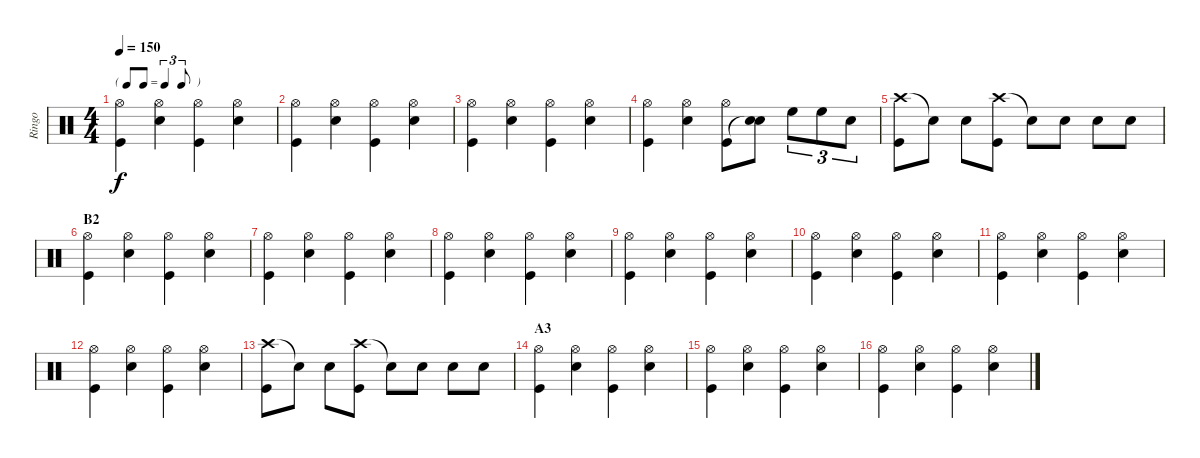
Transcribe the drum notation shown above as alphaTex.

\track ("Ringo" "Ringo") {instrument percussion}
\staff {score}
\articulation defaults
\ts (4 4)
\tf triplet8th
\tempo 150
\clef neutral
\ks c
("Hi-Hat (open)" "Kick (hit)").4{dy f} ("Hi-Hat (open)" "Snare (hit) 2").4 ("Hi-Hat (open)" "Kick (hit)").4 ("Hi-Hat (open)" "Snare (hit) 2").4 |
("Hi-Hat (open)" "Kick (hit)").4 ("Hi-Hat (open)" "Snare (hit) 2").4 ("Hi-Hat (open)" "Kick (hit)").4 ("Hi-Hat (open)" "Snare (hit) 2").4 |
("Hi-Hat (open)" "Kick (hit)").4 ("Hi-Hat (open)" "Snare (hit) 2").4 ("Hi-Hat (open)" "Kick (hit)").4 ("Hi-Hat (open)" "Snare (hit) 2").4 |
("Hi-Hat (open)" "Kick (hit)").4 ("Hi-Hat (open)" "Snare (hit) 2").4 ("Hi-Hat (open)" "Kick (hit)").8 ("Snare (hit) 2" "Snare (hit)"{t}).8 "High Floor Tom (hit)".8{tu (3 2)} "High Floor Tom (hit)".8{tu (3 2)} "Snare (hit) 2".8{tu (3 2)} |
("Crash high (hit)" "Kick (hit)").8 "Snare (hit)"{t}.8 "Snare (hit) 2".8 ("Crash high (hit)" "Kick (hit)").8 "Snare (hit)"{t}.8 "Snare (hit) 2".8 "Snare (hit) 2".8 "Snare (hit) 2".8 |
\section ("" "B2")
("Hi-Hat (open)" "Kick (hit)").4 ("Hi-Hat (open)" "Snare (hit) 2").4 ("Hi-Hat (open)" "Kick (hit)").4 ("Hi-Hat (open)" "Snare (hit) 2").4 |
("Hi-Hat (open)" "Kick (hit)").4 ("Hi-Hat (open)" "Snare (hit) 2").4 ("Hi-Hat (open)" "Kick (hit)").4 ("Hi-Hat (open)" "Snare (hit) 2").4 |
("Hi-Hat (open)" "Kick (hit)").4 ("Hi-Hat (open)" "Snare (hit) 2").4 ("Hi-Hat (open)" "Kick (hit)").4 ("Hi-Hat (open)" "Snare (hit) 2").4 |
("Hi-Hat (open)" "Kick (hit)").4 ("Hi-Hat (open)" "Snare (hit) 2").4 ("Hi-Hat (open)" "Kick (hit)").4 ("Hi-Hat (open)" "Snare (hit) 2").4 |
("Hi-Hat (open)" "Kick (hit)").4 ("Hi-Hat (open)" "Snare (hit) 2").4 ("Hi-Hat (open)" "Kick (hit)").4 ("Hi-Hat (open)" "Snare (hit) 2").4 |
("Hi-Hat (open)" "Kick (hit)").4 ("Hi-Hat (open)" "Snare (hit) 2").4 ("Hi-Hat (open)" "Kick (hit)").4 ("Hi-Hat (open)" "Snare (hit) 2").4 |
("Hi-Hat (open)" "Kick (hit)").4 ("Hi-Hat (open)" "Snare (hit) 2").4 ("Hi-Hat (open)" "Kick (hit)").4 ("Hi-Hat (open)" "Snare (hit) 2").4 |
("Crash high (hit)" "Kick (hit)").8 "Snare (hit)"{t}.8 "Snare (hit) 2".8 ("Crash high (hit)" "Kick (hit)").8 "Snare (hit)"{t}.8 "Snare (hit) 2".8 "Snare (hit) 2".8 "Snare (hit) 2".8 |
\section ("" "A3")
("Hi-Hat (open)" "Kick (hit)").4 ("Hi-Hat (open)" "Snare (hit) 2").4 ("Hi-Hat (open)" "Kick (hit)").4 ("Hi-Hat (open)" "Snare (hit) 2").4 |
("Hi-Hat (open)" "Kick (hit)").4 ("Hi-Hat (open)" "Snare (hit) 2").4 ("Hi-Hat (open)" "Kick (hit)").4 ("Hi-Hat (open)" "Snare (hit) 2").4 |
("Hi-Hat (open)" "Kick (hit)").4 ("Hi-Hat (open)" "Snare (hit) 2").4 ("Hi-Hat (open)" "Kick (hit)").4 ("Hi-Hat (open)" "Snare (hit) 2").4
